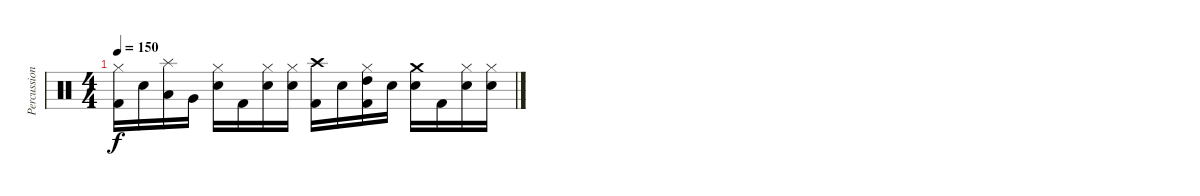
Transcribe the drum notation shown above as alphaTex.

\track ("Percussion" "Percussion") {instrument percussion}
\staff {score}
\articulation defaults
\ts (4 4)
\tempo 150
\clef neutral
\ks c
("Hi-Hat (closed)" "Kick (hit) 2").16{dy f} "Electric Snare (hit)".16 ("Splash (hit)" "Low Tom (hit)").16 "Very Low Tom (hit)".16 ("Hi-Hat (closed)" "Electric Snare (hit)").16 "Kick (hit) 2".16 ("Hi-Hat (closed)" "Electric Snare (hit)").16 ("Hi-Hat (closed)" "Electric Snare (hit)").16 ("Crash high (hit)" "Kick (hit) 2").16 "Electric Snare (hit)".16 ("Hi-Hat (closed)" "High Tom (hit)" "Kick (hit) 2").16 "Electric Snare (hit)".16 ("Crash medium (hit)" "Electric Snare (hit)").16 "Kick (hit) 2".16 ("Hi-Hat (closed)" "Electric Snare (hit)").16 ("Hi-Hat (closed)" "Electric Snare (hit)").16
